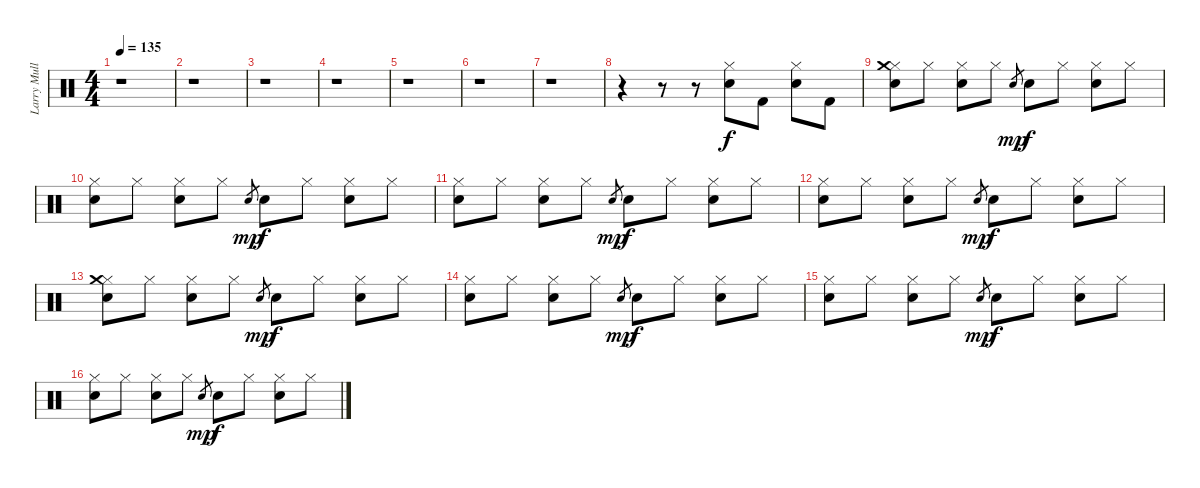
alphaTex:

\track ("Larry Mullen Jr." "Larry Mull") {instrument percussion}
\staff {score}
\articulation defaults
\ts (4 4)
\tempo 135
\clef neutral
\ks c
r.1{dy f} |
r.1 |
r.1 |
r.1 |
r.1 |
r.1 |
r.1 |
r.4{volume 16} r.8 r.8 ("Electric Snare (hit)" "Hi-Hat (closed)").8 "Kick (hit) 2".8 ("Electric Snare (hit)" "Hi-Hat (closed)").8 "Kick (hit) 2".8 |
("Electric Snare (hit)" "Hi-Hat (closed)" "Crash medium (hit)").8 "Hi-Hat (closed)".8 ("Electric Snare (hit)" "Hi-Hat (closed)").8 "Hi-Hat (closed)".8 "Electric Snare (hit)".8{gr dy mp} "Electric Snare (hit)".8{dy f} "Hi-Hat (closed)".8 ("Electric Snare (hit)" "Hi-Hat (closed)").8 "Hi-Hat (closed)".8 |
("Electric Snare (hit)" "Hi-Hat (closed)").8 "Hi-Hat (closed)".8 ("Electric Snare (hit)" "Hi-Hat (closed)").8 "Hi-Hat (closed)".8 "Electric Snare (hit)".8{gr dy mp} "Electric Snare (hit)".8{dy f} "Hi-Hat (closed)".8 ("Electric Snare (hit)" "Hi-Hat (closed)").8 "Hi-Hat (closed)".8 |
("Electric Snare (hit)" "Hi-Hat (closed)").8 "Hi-Hat (closed)".8 ("Electric Snare (hit)" "Hi-Hat (closed)").8 "Hi-Hat (closed)".8 "Electric Snare (hit)".8{gr dy mp} "Electric Snare (hit)".8{dy f} "Hi-Hat (closed)".8 ("Electric Snare (hit)" "Hi-Hat (closed)").8 "Hi-Hat (closed)".8 |
("Electric Snare (hit)" "Hi-Hat (closed)").8 "Hi-Hat (closed)".8 ("Electric Snare (hit)" "Hi-Hat (closed)").8 "Hi-Hat (closed)".8 "Electric Snare (hit)".8{gr dy mp} "Electric Snare (hit)".8{dy f} "Hi-Hat (closed)".8 ("Electric Snare (hit)" "Hi-Hat (closed)").8 "Hi-Hat (closed)".8 |
("Electric Snare (hit)" "Hi-Hat (closed)" "Crash medium (hit)").8 "Hi-Hat (closed)".8 ("Electric Snare (hit)" "Hi-Hat (closed)").8 "Hi-Hat (closed)".8 "Electric Snare (hit)".8{gr dy mp} "Electric Snare (hit)".8{dy f} "Hi-Hat (closed)".8 ("Electric Snare (hit)" "Hi-Hat (closed)").8 "Hi-Hat (closed)".8 |
("Electric Snare (hit)" "Hi-Hat (closed)").8 "Hi-Hat (closed)".8 ("Electric Snare (hit)" "Hi-Hat (closed)").8 "Hi-Hat (closed)".8 "Electric Snare (hit)".8{gr dy mp} "Electric Snare (hit)".8{dy f} "Hi-Hat (closed)".8 ("Electric Snare (hit)" "Hi-Hat (closed)").8 "Hi-Hat (closed)".8 |
("Electric Snare (hit)" "Hi-Hat (closed)").8 "Hi-Hat (closed)".8 ("Electric Snare (hit)" "Hi-Hat (closed)").8 "Hi-Hat (closed)".8 "Electric Snare (hit)".8{gr dy mp} "Electric Snare (hit)".8{dy f} "Hi-Hat (closed)".8 ("Electric Snare (hit)" "Hi-Hat (closed)").8 "Hi-Hat (closed)".8 |
("Electric Snare (hit)" "Hi-Hat (closed)").8 "Hi-Hat (closed)".8 ("Electric Snare (hit)" "Hi-Hat (closed)").8 "Hi-Hat (closed)".8 "Electric Snare (hit)".8{gr dy mp} "Electric Snare (hit)".8{dy f} "Hi-Hat (closed)".8 ("Electric Snare (hit)" "Hi-Hat (closed)").8 "Hi-Hat (closed)".8
